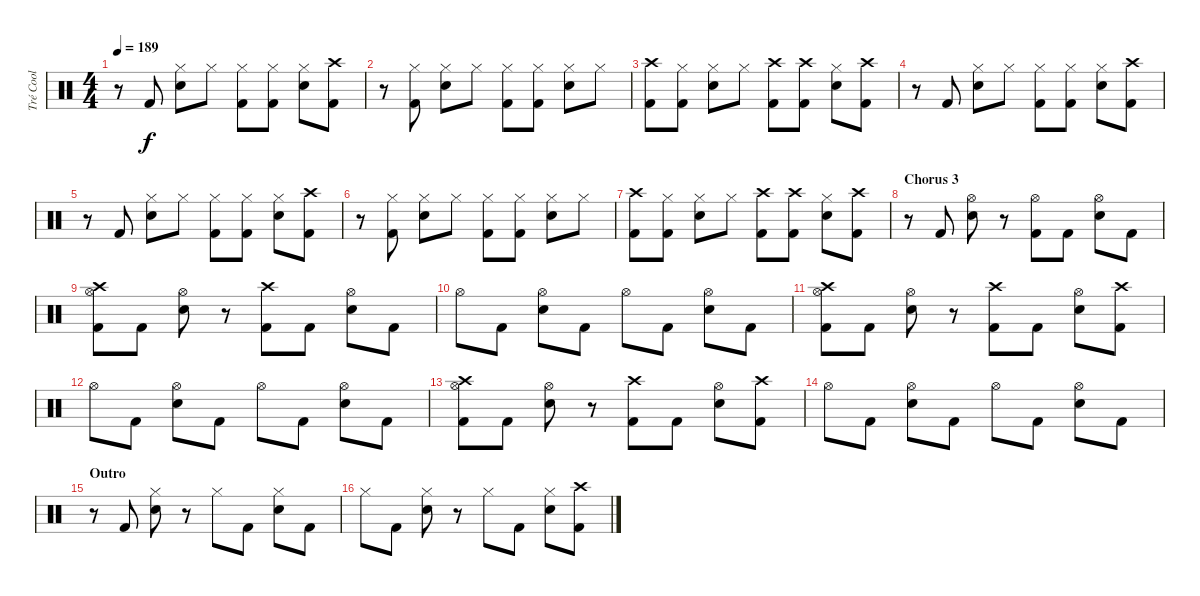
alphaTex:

\track ("Tré Cool" "Tré Cool") {instrument percussion}
\staff {score}
\articulation defaults
\ts (4 4)
\tempo 189
\clef neutral
\ks c
r.8{dy f} "Kick (hit) 2".8 ("Hi-Hat (closed)" "Snare (hit) 2").8 "Hi-Hat (closed)".8 ("Hi-Hat (closed)" "Kick (hit) 2").8 ("Hi-Hat (closed)" "Kick (hit) 2").8 ("Hi-Hat (closed)" "Snare (hit) 2").8 ("Crash high (hit)" "Kick (hit) 2").8 |
r.8 ("Hi-Hat (closed)" "Kick (hit) 2").8 ("Hi-Hat (closed)" "Snare (hit) 2").8 "Hi-Hat (closed)".8 ("Hi-Hat (closed)" "Kick (hit) 2").8 ("Hi-Hat (closed)" "Kick (hit) 2").8 ("Hi-Hat (closed)" "Snare (hit) 2").8 "Hi-Hat (closed)".8 |
("Crash high (hit)" "Kick (hit) 2").8 ("Hi-Hat (closed)" "Kick (hit) 2").8 ("Hi-Hat (closed)" "Snare (hit) 2").8 "Hi-Hat (closed)".8 ("Crash high (hit)" "Kick (hit) 2").8 ("Crash high (hit)" "Kick (hit) 2").8 ("Hi-Hat (closed)" "Snare (hit) 2").8 ("Crash high (hit)" "Kick (hit) 2").8 |
r.8 "Kick (hit) 2".8 ("Hi-Hat (closed)" "Snare (hit) 2").8 "Hi-Hat (closed)".8 ("Hi-Hat (closed)" "Kick (hit) 2").8 ("Hi-Hat (closed)" "Kick (hit) 2").8 ("Hi-Hat (closed)" "Snare (hit) 2").8 ("Crash high (hit)" "Kick (hit) 2").8 |
r.8 "Kick (hit) 2".8 ("Hi-Hat (closed)" "Snare (hit) 2").8 "Hi-Hat (closed)".8 ("Hi-Hat (closed)" "Kick (hit) 2").8 ("Hi-Hat (closed)" "Kick (hit) 2").8 ("Hi-Hat (closed)" "Snare (hit) 2").8 ("Crash high (hit)" "Kick (hit) 2").8 |
r.8 ("Hi-Hat (closed)" "Kick (hit) 2").8 ("Hi-Hat (closed)" "Snare (hit) 2").8 "Hi-Hat (closed)".8 ("Hi-Hat (closed)" "Kick (hit) 2").8 ("Hi-Hat (closed)" "Kick (hit) 2").8 ("Hi-Hat (closed)" "Snare (hit) 2").8 "Hi-Hat (closed)".8 |
("Crash high (hit)" "Kick (hit) 2").8 ("Hi-Hat (closed)" "Kick (hit) 2").8 ("Hi-Hat (closed)" "Snare (hit) 2").8 "Hi-Hat (closed)".8 ("Crash high (hit)" "Kick (hit) 2").8 ("Crash high (hit)" "Kick (hit) 2").8 ("Hi-Hat (closed)" "Snare (hit) 2").8 ("Crash high (hit)" "Kick (hit) 2").8 |
\section ("" "Chorus 3")
r.8 "Kick (hit) 2".8 ("Hi-Hat (open)" "Snare (hit) 2").8 r.8 ("Hi-Hat (open)" "Kick (hit) 2").8 "Kick (hit) 2".8 ("Hi-Hat (open)" "Snare (hit) 2").8 "Kick (hit) 2".8 |
("Crash high (hit)" "Hi-Hat (open)" "Kick (hit) 2").8 "Kick (hit) 2".8 ("Hi-Hat (open)" "Snare (hit) 2").8 r.8 ("Crash high (hit)" "Kick (hit) 2").8 "Kick (hit) 2".8 ("Hi-Hat (open)" "Snare (hit) 2").8 "Kick (hit) 2".8 |
"Hi-Hat (open)".8 "Kick (hit) 2".8 ("Hi-Hat (open)" "Snare (hit) 2").8 "Kick (hit) 2".8 "Hi-Hat (open)".8 "Kick (hit) 2".8 ("Hi-Hat (open)" "Snare (hit) 2").8 "Kick (hit) 2".8 |
("Crash high (hit)" "Hi-Hat (open)" "Kick (hit) 2").8 "Kick (hit) 2".8 ("Hi-Hat (open)" "Snare (hit) 2").8 r.8 ("Crash high (hit)" "Kick (hit) 2").8 "Kick (hit) 2".8 ("Hi-Hat (open)" "Snare (hit) 2").8 ("Crash high (hit)" "Kick (hit) 2").8 |
"Hi-Hat (open)".8 "Kick (hit) 2".8 ("Hi-Hat (open)" "Snare (hit) 2").8 "Kick (hit) 2".8 "Hi-Hat (open)".8 "Kick (hit) 2".8 ("Hi-Hat (open)" "Snare (hit) 2").8 "Kick (hit) 2".8 |
("Crash high (hit)" "Hi-Hat (open)" "Kick (hit) 2").8 "Kick (hit) 2".8 ("Hi-Hat (open)" "Snare (hit) 2").8 r.8 ("Crash high (hit)" "Kick (hit) 2").8 "Kick (hit) 2".8 ("Hi-Hat (open)" "Snare (hit) 2").8 ("Crash high (hit)" "Kick (hit) 2").8 |
"Hi-Hat (open)".8 "Kick (hit) 2".8 ("Hi-Hat (open)" "Snare (hit) 2").8 "Kick (hit) 2".8 "Hi-Hat (open)".8 "Kick (hit) 2".8 ("Hi-Hat (open)" "Snare (hit) 2").8 "Kick (hit) 2".8 |
\section ("" "Outro")
r.8 "Kick (hit) 2".8 ("Hi-Hat (closed)" "Snare (hit) 2").8 r.8 "Hi-Hat (closed)".8 "Kick (hit) 2".8 ("Hi-Hat (closed)" "Snare (hit) 2").8 "Kick (hit) 2".8 |
"Hi-Hat (closed)".8 "Kick (hit) 2".8 ("Hi-Hat (closed)" "Snare (hit) 2").8 r.8 "Hi-Hat (closed)".8 "Kick (hit) 2".8 ("Hi-Hat (closed)" "Snare (hit) 2").8 ("Crash high (hit)" "Kick (hit) 2").8
